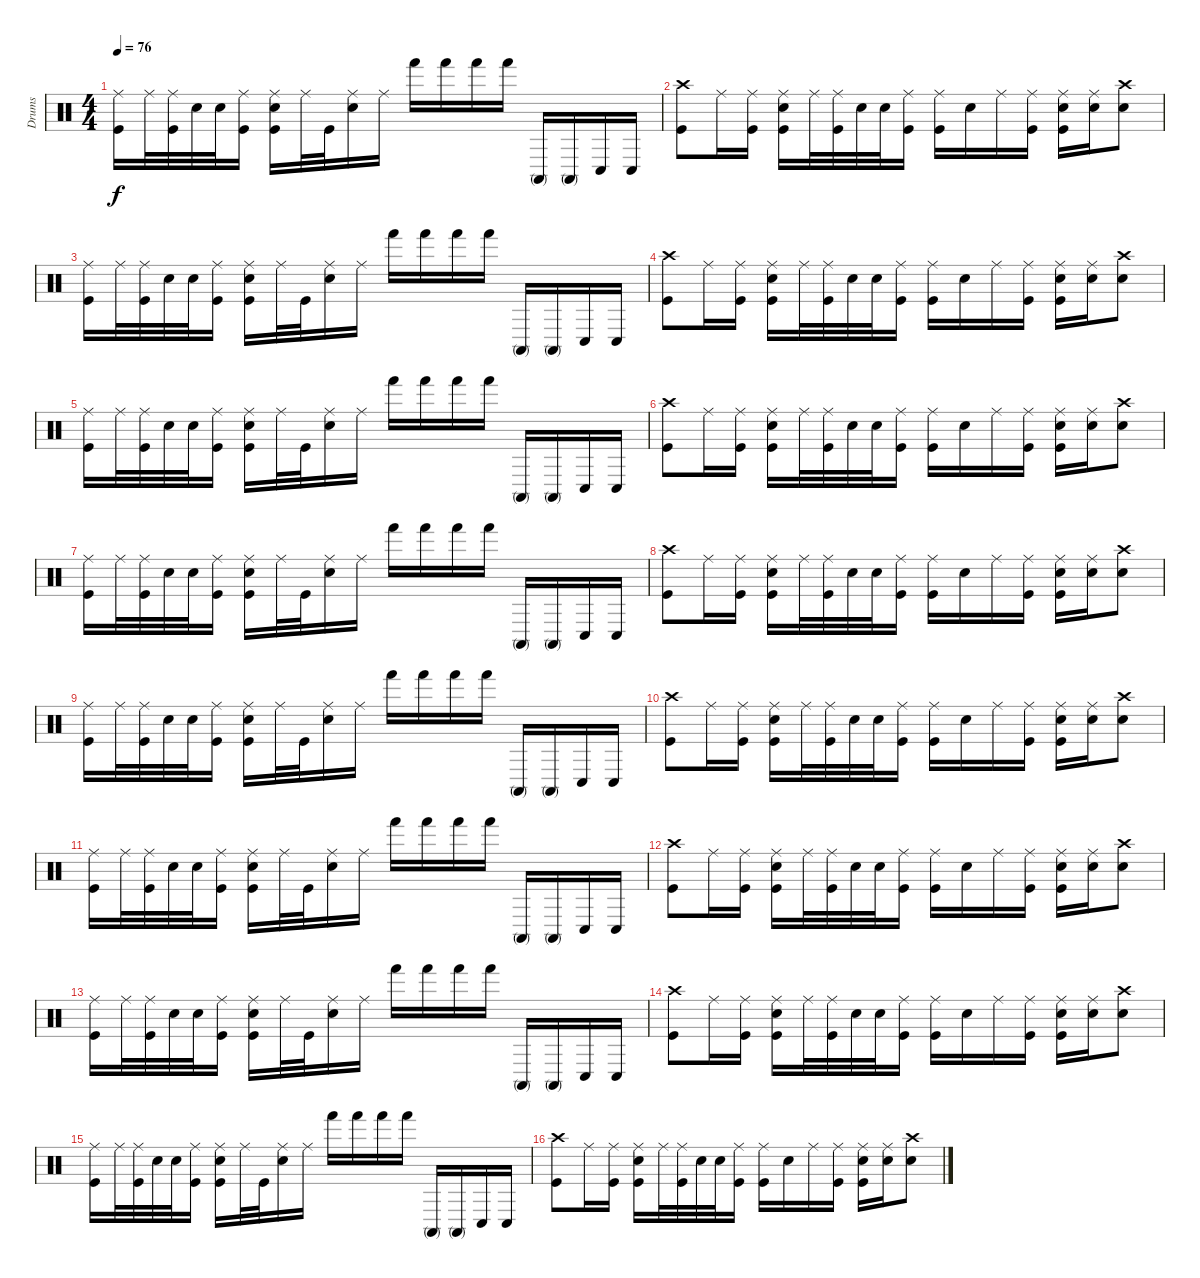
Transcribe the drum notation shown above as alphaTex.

\track ("Drums" "Drums") {instrument percussion}
\staff {score}
\articulation defaults
\ts (4 4)
\tempo 76
\clef neutral
\ks c
("Ride (middle)" "Kick (hit)").16{dy f} "Ride (middle)".32 ("Kick (hit)" "Ride (middle)").32 "Electric Snare (hit)".32 "Electric Snare (hit)".32 ("Kick (hit)" "Ride (middle)").16 ("Ride (middle)" "Kick (hit)" "Electric Snare (hit)").16 "Ride (middle)".32 "Kick (hit)".32 ("Ride (middle)" "Electric Snare (hit)").16 "Ride (middle)".16 "Hand (hit)".16 "Hand (hit)".16 "Hand (hit)".16 "Hand (hit)".16 "Conga high (mute)".16 "Conga high (mute)".16 "Conga low (hit)".16 "Conga low (hit)".16 |
("Crash high (hit)" "Kick (hit)").8 "Ride (middle)".16 ("Kick (hit)" "Ride (middle)").16 ("Electric Snare (hit)" "Kick (hit)" "Ride (middle)").16 "Ride (middle)".32 ("Kick (hit)" "Ride (middle)").32 "Electric Snare (hit)".32 "Electric Snare (hit)".32 ("Kick (hit)" "Ride (middle)").16 ("Kick (hit)" "Ride (middle)").16 "Electric Snare (hit)".16 "Ride (middle)".16 ("Kick (hit)" "Ride (middle)").16 ("Kick (hit)" "Electric Snare (hit)" "Ride (middle)").16 ("Electric Snare (hit)" "Ride (middle)").16 ("Electric Snare (hit)" "Crash high (hit)").8 |
("Ride (middle)" "Kick (hit)").16 "Ride (middle)".32 ("Kick (hit)" "Ride (middle)").32 "Electric Snare (hit)".32 "Electric Snare (hit)".32 ("Kick (hit)" "Ride (middle)").16 ("Ride (middle)" "Kick (hit)" "Electric Snare (hit)").16 "Ride (middle)".32 "Kick (hit)".32 ("Ride (middle)" "Electric Snare (hit)").16 "Ride (middle)".16 "Hand (hit)".16 "Hand (hit)".16 "Hand (hit)".16 "Hand (hit)".16 "Conga high (mute)".16 "Conga high (mute)".16 "Conga low (hit)".16 "Conga low (hit)".16 |
("Crash high (hit)" "Kick (hit)").8 "Ride (middle)".16 ("Kick (hit)" "Ride (middle)").16 ("Electric Snare (hit)" "Kick (hit)" "Ride (middle)").16 "Ride (middle)".32 ("Kick (hit)" "Ride (middle)").32 "Electric Snare (hit)".32 "Electric Snare (hit)".32 ("Kick (hit)" "Ride (middle)").16 ("Kick (hit)" "Ride (middle)").16 "Electric Snare (hit)".16 "Ride (middle)".16 ("Kick (hit)" "Ride (middle)").16 ("Kick (hit)" "Electric Snare (hit)" "Ride (middle)").16 ("Electric Snare (hit)" "Ride (middle)").16 ("Electric Snare (hit)" "Crash high (hit)").8 |
("Ride (middle)" "Kick (hit)").16 "Ride (middle)".32 ("Kick (hit)" "Ride (middle)").32 "Electric Snare (hit)".32 "Electric Snare (hit)".32 ("Kick (hit)" "Ride (middle)").16 ("Ride (middle)" "Kick (hit)" "Electric Snare (hit)").16 "Ride (middle)".32 "Kick (hit)".32 ("Ride (middle)" "Electric Snare (hit)").16 "Ride (middle)".16 "Hand (hit)".16 "Hand (hit)".16 "Hand (hit)".16 "Hand (hit)".16 "Conga high (mute)".16 "Conga high (mute)".16 "Conga low (hit)".16 "Conga low (hit)".16 |
("Crash high (hit)" "Kick (hit)").8 "Ride (middle)".16 ("Kick (hit)" "Ride (middle)").16 ("Electric Snare (hit)" "Kick (hit)" "Ride (middle)").16 "Ride (middle)".32 ("Kick (hit)" "Ride (middle)").32 "Electric Snare (hit)".32 "Electric Snare (hit)".32 ("Kick (hit)" "Ride (middle)").16 ("Kick (hit)" "Ride (middle)").16 "Electric Snare (hit)".16 "Ride (middle)".16 ("Kick (hit)" "Ride (middle)").16 ("Kick (hit)" "Electric Snare (hit)" "Ride (middle)").16 ("Electric Snare (hit)" "Ride (middle)").16 ("Electric Snare (hit)" "Crash high (hit)").8 |
("Ride (middle)" "Kick (hit)").16 "Ride (middle)".32 ("Kick (hit)" "Ride (middle)").32 "Electric Snare (hit)".32 "Electric Snare (hit)".32 ("Kick (hit)" "Ride (middle)").16 ("Ride (middle)" "Kick (hit)" "Electric Snare (hit)").16 "Ride (middle)".32 "Kick (hit)".32 ("Ride (middle)" "Electric Snare (hit)").16 "Ride (middle)".16 "Hand (hit)".16 "Hand (hit)".16 "Hand (hit)".16 "Hand (hit)".16 "Conga high (mute)".16 "Conga high (mute)".16 "Conga low (hit)".16 "Conga low (hit)".16 |
("Crash high (hit)" "Kick (hit)").8 "Ride (middle)".16 ("Kick (hit)" "Ride (middle)").16 ("Electric Snare (hit)" "Kick (hit)" "Ride (middle)").16 "Ride (middle)".32 ("Kick (hit)" "Ride (middle)").32 "Electric Snare (hit)".32 "Electric Snare (hit)".32 ("Kick (hit)" "Ride (middle)").16 ("Kick (hit)" "Ride (middle)").16 "Electric Snare (hit)".16 "Ride (middle)".16 ("Kick (hit)" "Ride (middle)").16 ("Kick (hit)" "Electric Snare (hit)" "Ride (middle)").16 ("Electric Snare (hit)" "Ride (middle)").16 ("Electric Snare (hit)" "Crash high (hit)").8 |
("Ride (middle)" "Kick (hit)").16 "Ride (middle)".32 ("Kick (hit)" "Ride (middle)").32 "Electric Snare (hit)".32 "Electric Snare (hit)".32 ("Kick (hit)" "Ride (middle)").16 ("Ride (middle)" "Kick (hit)" "Electric Snare (hit)").16 "Ride (middle)".32 "Kick (hit)".32 ("Ride (middle)" "Electric Snare (hit)").16 "Ride (middle)".16 "Hand (hit)".16 "Hand (hit)".16 "Hand (hit)".16 "Hand (hit)".16 "Conga high (mute)".16 "Conga high (mute)".16 "Conga low (hit)".16 "Conga low (hit)".16 |
("Crash high (hit)" "Kick (hit)").8 "Ride (middle)".16 ("Kick (hit)" "Ride (middle)").16 ("Electric Snare (hit)" "Kick (hit)" "Ride (middle)").16 "Ride (middle)".32 ("Kick (hit)" "Ride (middle)").32 "Electric Snare (hit)".32 "Electric Snare (hit)".32 ("Kick (hit)" "Ride (middle)").16 ("Kick (hit)" "Ride (middle)").16 "Electric Snare (hit)".16 "Ride (middle)".16 ("Kick (hit)" "Ride (middle)").16 ("Kick (hit)" "Electric Snare (hit)" "Ride (middle)").16 ("Electric Snare (hit)" "Ride (middle)").16 ("Electric Snare (hit)" "Crash high (hit)").8 |
("Ride (middle)" "Kick (hit)").16 "Ride (middle)".32 ("Kick (hit)" "Ride (middle)").32 "Electric Snare (hit)".32 "Electric Snare (hit)".32 ("Kick (hit)" "Ride (middle)").16 ("Ride (middle)" "Kick (hit)" "Electric Snare (hit)").16 "Ride (middle)".32 "Kick (hit)".32 ("Ride (middle)" "Electric Snare (hit)").16 "Ride (middle)".16 "Hand (hit)".16 "Hand (hit)".16 "Hand (hit)".16 "Hand (hit)".16 "Conga high (mute)".16 "Conga high (mute)".16 "Conga low (hit)".16 "Conga low (hit)".16 |
("Crash high (hit)" "Kick (hit)").8 "Ride (middle)".16 ("Kick (hit)" "Ride (middle)").16 ("Electric Snare (hit)" "Kick (hit)" "Ride (middle)").16 "Ride (middle)".32 ("Kick (hit)" "Ride (middle)").32 "Electric Snare (hit)".32 "Electric Snare (hit)".32 ("Kick (hit)" "Ride (middle)").16 ("Kick (hit)" "Ride (middle)").16 "Electric Snare (hit)".16 "Ride (middle)".16 ("Kick (hit)" "Ride (middle)").16 ("Kick (hit)" "Electric Snare (hit)" "Ride (middle)").16 ("Electric Snare (hit)" "Ride (middle)").16 ("Electric Snare (hit)" "Crash high (hit)").8 |
("Ride (middle)" "Kick (hit)").16 "Ride (middle)".32 ("Kick (hit)" "Ride (middle)").32 "Electric Snare (hit)".32 "Electric Snare (hit)".32 ("Kick (hit)" "Ride (middle)").16 ("Ride (middle)" "Kick (hit)" "Electric Snare (hit)").16 "Ride (middle)".32 "Kick (hit)".32 ("Ride (middle)" "Electric Snare (hit)").16 "Ride (middle)".16 "Hand (hit)".16 "Hand (hit)".16 "Hand (hit)".16 "Hand (hit)".16 "Conga high (mute)".16 "Conga high (mute)".16 "Conga low (hit)".16 "Conga low (hit)".16 |
("Crash high (hit)" "Kick (hit)").8 "Ride (middle)".16 ("Kick (hit)" "Ride (middle)").16 ("Electric Snare (hit)" "Kick (hit)" "Ride (middle)").16 "Ride (middle)".32 ("Kick (hit)" "Ride (middle)").32 "Electric Snare (hit)".32 "Electric Snare (hit)".32 ("Kick (hit)" "Ride (middle)").16 ("Kick (hit)" "Ride (middle)").16 "Electric Snare (hit)".16 "Ride (middle)".16 ("Kick (hit)" "Ride (middle)").16 ("Kick (hit)" "Electric Snare (hit)" "Ride (middle)").16 ("Electric Snare (hit)" "Ride (middle)").16 ("Electric Snare (hit)" "Crash high (hit)").8 |
("Ride (middle)" "Kick (hit)").16 "Ride (middle)".32 ("Kick (hit)" "Ride (middle)").32 "Electric Snare (hit)".32 "Electric Snare (hit)".32 ("Kick (hit)" "Ride (middle)").16 ("Ride (middle)" "Kick (hit)" "Electric Snare (hit)").16 "Ride (middle)".32 "Kick (hit)".32 ("Ride (middle)" "Electric Snare (hit)").16 "Ride (middle)".16 "Hand (hit)".16 "Hand (hit)".16 "Hand (hit)".16 "Hand (hit)".16 "Conga high (mute)".16 "Conga high (mute)".16 "Conga low (hit)".16 "Conga low (hit)".16 |
("Crash high (hit)" "Kick (hit)").8 "Ride (middle)".16 ("Kick (hit)" "Ride (middle)").16 ("Electric Snare (hit)" "Kick (hit)" "Ride (middle)").16 "Ride (middle)".32 ("Kick (hit)" "Ride (middle)").32 "Electric Snare (hit)".32 "Electric Snare (hit)".32 ("Kick (hit)" "Ride (middle)").16 ("Kick (hit)" "Ride (middle)").16 "Electric Snare (hit)".16 "Ride (middle)".16 ("Kick (hit)" "Ride (middle)").16 ("Kick (hit)" "Electric Snare (hit)" "Ride (middle)").16 ("Electric Snare (hit)" "Ride (middle)").16 ("Electric Snare (hit)" "Crash high (hit)").8
